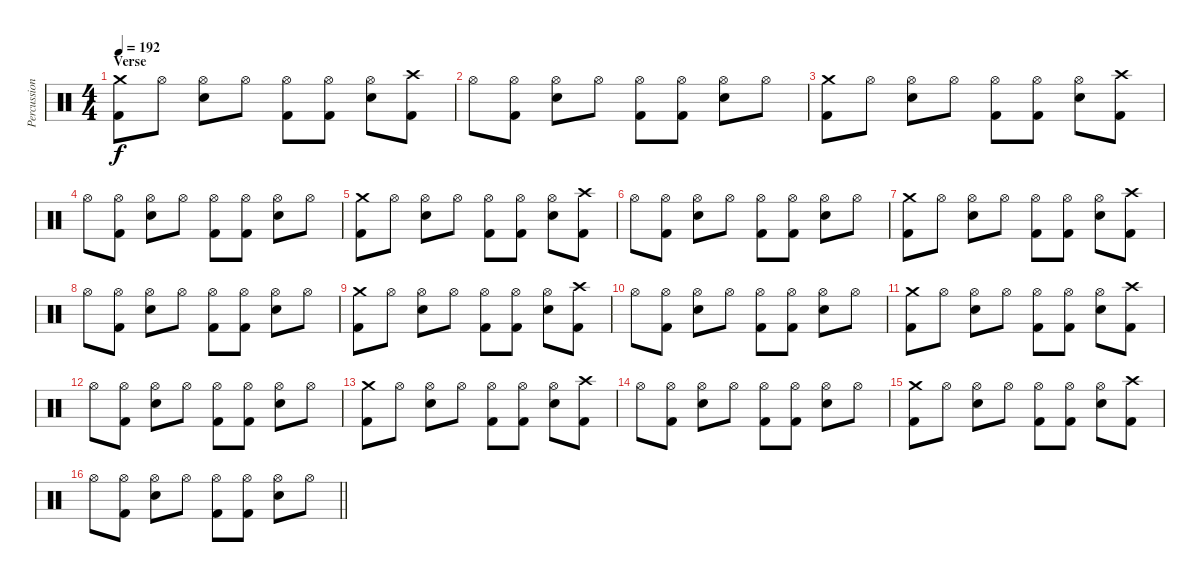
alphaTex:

\track ("Percussion" "Percussion") {instrument percussion}
\staff {score}
\articulation defaults
\ts (4 4)
\section ("" "Verse")
\tempo 192
\clef neutral
\ks c
("Crash medium (hit)" "Kick (hit) 2").8{dy f} "Hi-Hat (open)".8 ("Hi-Hat (open)" "Electric Snare (hit)").8 "Hi-Hat (open)".8 ("Hi-Hat (open)" "Kick (hit) 2").8 ("Hi-Hat (open)" "Kick (hit) 2").8 ("Hi-Hat (open)" "Electric Snare (hit)").8 ("Crash high (hit)" "Kick (hit) 2").8 |
"Hi-Hat (open)".8 ("Hi-Hat (open)" "Kick (hit) 2").8 ("Hi-Hat (open)" "Electric Snare (hit)").8 "Hi-Hat (open)".8 ("Hi-Hat (open)" "Kick (hit) 2").8 ("Hi-Hat (open)" "Kick (hit) 2").8 ("Hi-Hat (open)" "Electric Snare (hit)").8 "Hi-Hat (open)".8 |
("Crash medium (hit)" "Kick (hit) 2").8 "Hi-Hat (open)".8 ("Hi-Hat (open)" "Electric Snare (hit)").8 "Hi-Hat (open)".8 ("Hi-Hat (open)" "Kick (hit) 2").8 ("Hi-Hat (open)" "Kick (hit) 2").8 ("Hi-Hat (open)" "Electric Snare (hit)").8 ("Crash high (hit)" "Kick (hit) 2").8 |
"Hi-Hat (open)".8 ("Hi-Hat (open)" "Kick (hit) 2").8 ("Hi-Hat (open)" "Electric Snare (hit)").8 "Hi-Hat (open)".8 ("Hi-Hat (open)" "Kick (hit) 2").8 ("Hi-Hat (open)" "Kick (hit) 2").8 ("Hi-Hat (open)" "Electric Snare (hit)").8 "Hi-Hat (open)".8 |
("Crash medium (hit)" "Kick (hit) 2").8 "Hi-Hat (open)".8 ("Hi-Hat (open)" "Electric Snare (hit)").8 "Hi-Hat (open)".8 ("Hi-Hat (open)" "Kick (hit) 2").8 ("Hi-Hat (open)" "Kick (hit) 2").8 ("Hi-Hat (open)" "Electric Snare (hit)").8 ("Crash high (hit)" "Kick (hit) 2").8 |
"Hi-Hat (open)".8 ("Hi-Hat (open)" "Kick (hit) 2").8 ("Hi-Hat (open)" "Electric Snare (hit)").8 "Hi-Hat (open)".8 ("Hi-Hat (open)" "Kick (hit) 2").8 ("Hi-Hat (open)" "Kick (hit) 2").8 ("Hi-Hat (open)" "Electric Snare (hit)").8 "Hi-Hat (open)".8 |
("Crash medium (hit)" "Kick (hit) 2").8 "Hi-Hat (open)".8 ("Hi-Hat (open)" "Electric Snare (hit)").8 "Hi-Hat (open)".8 ("Hi-Hat (open)" "Kick (hit) 2").8 ("Hi-Hat (open)" "Kick (hit) 2").8 ("Hi-Hat (open)" "Electric Snare (hit)").8 ("Crash high (hit)" "Kick (hit) 2").8 |
"Hi-Hat (open)".8 ("Hi-Hat (open)" "Kick (hit) 2").8 ("Hi-Hat (open)" "Electric Snare (hit)").8 "Hi-Hat (open)".8 ("Hi-Hat (open)" "Kick (hit) 2").8 ("Hi-Hat (open)" "Kick (hit) 2").8 ("Hi-Hat (open)" "Electric Snare (hit)").8 "Hi-Hat (open)".8 |
("Crash medium (hit)" "Kick (hit) 2").8 "Hi-Hat (open)".8 ("Hi-Hat (open)" "Electric Snare (hit)").8 "Hi-Hat (open)".8 ("Hi-Hat (open)" "Kick (hit) 2").8 ("Hi-Hat (open)" "Kick (hit) 2").8 ("Hi-Hat (open)" "Electric Snare (hit)").8 ("Crash high (hit)" "Kick (hit) 2").8 |
"Hi-Hat (open)".8 ("Hi-Hat (open)" "Kick (hit) 2").8 ("Hi-Hat (open)" "Electric Snare (hit)").8 "Hi-Hat (open)".8 ("Hi-Hat (open)" "Kick (hit) 2").8 ("Hi-Hat (open)" "Kick (hit) 2").8 ("Hi-Hat (open)" "Electric Snare (hit)").8 "Hi-Hat (open)".8 |
("Crash medium (hit)" "Kick (hit) 2").8 "Hi-Hat (open)".8 ("Hi-Hat (open)" "Electric Snare (hit)").8 "Hi-Hat (open)".8 ("Hi-Hat (open)" "Kick (hit) 2").8 ("Hi-Hat (open)" "Kick (hit) 2").8 ("Hi-Hat (open)" "Electric Snare (hit)").8 ("Crash high (hit)" "Kick (hit) 2").8 |
"Hi-Hat (open)".8 ("Hi-Hat (open)" "Kick (hit) 2").8 ("Hi-Hat (open)" "Electric Snare (hit)").8 "Hi-Hat (open)".8 ("Hi-Hat (open)" "Kick (hit) 2").8 ("Hi-Hat (open)" "Kick (hit) 2").8 ("Hi-Hat (open)" "Electric Snare (hit)").8 "Hi-Hat (open)".8 |
("Crash medium (hit)" "Kick (hit) 2").8 "Hi-Hat (open)".8 ("Hi-Hat (open)" "Electric Snare (hit)").8 "Hi-Hat (open)".8 ("Hi-Hat (open)" "Kick (hit) 2").8 ("Hi-Hat (open)" "Kick (hit) 2").8 ("Hi-Hat (open)" "Electric Snare (hit)").8 ("Crash high (hit)" "Kick (hit) 2").8 |
"Hi-Hat (open)".8 ("Hi-Hat (open)" "Kick (hit) 2").8 ("Hi-Hat (open)" "Electric Snare (hit)").8 "Hi-Hat (open)".8 ("Hi-Hat (open)" "Kick (hit) 2").8 ("Hi-Hat (open)" "Kick (hit) 2").8 ("Hi-Hat (open)" "Electric Snare (hit)").8 "Hi-Hat (open)".8 |
("Crash medium (hit)" "Kick (hit) 2").8 "Hi-Hat (open)".8 ("Hi-Hat (open)" "Electric Snare (hit)").8 "Hi-Hat (open)".8 ("Hi-Hat (open)" "Kick (hit) 2").8 ("Hi-Hat (open)" "Kick (hit) 2").8 ("Hi-Hat (open)" "Electric Snare (hit)").8 ("Crash high (hit)" "Kick (hit) 2").8 |
\barLineRight lightlight "Hi-Hat (open)".8
("Hi-Hat (open)" "Kick (hit) 2").8 ("Hi-Hat (open)" "Electric Snare (hit)").8 "Hi-Hat (open)".8 ("Hi-Hat (open)" "Kick (hit) 2").8 ("Hi-Hat (open)" "Kick (hit) 2").8 ("Hi-Hat (open)" "Electric Snare (hit)").8 "Hi-Hat (open)".8
